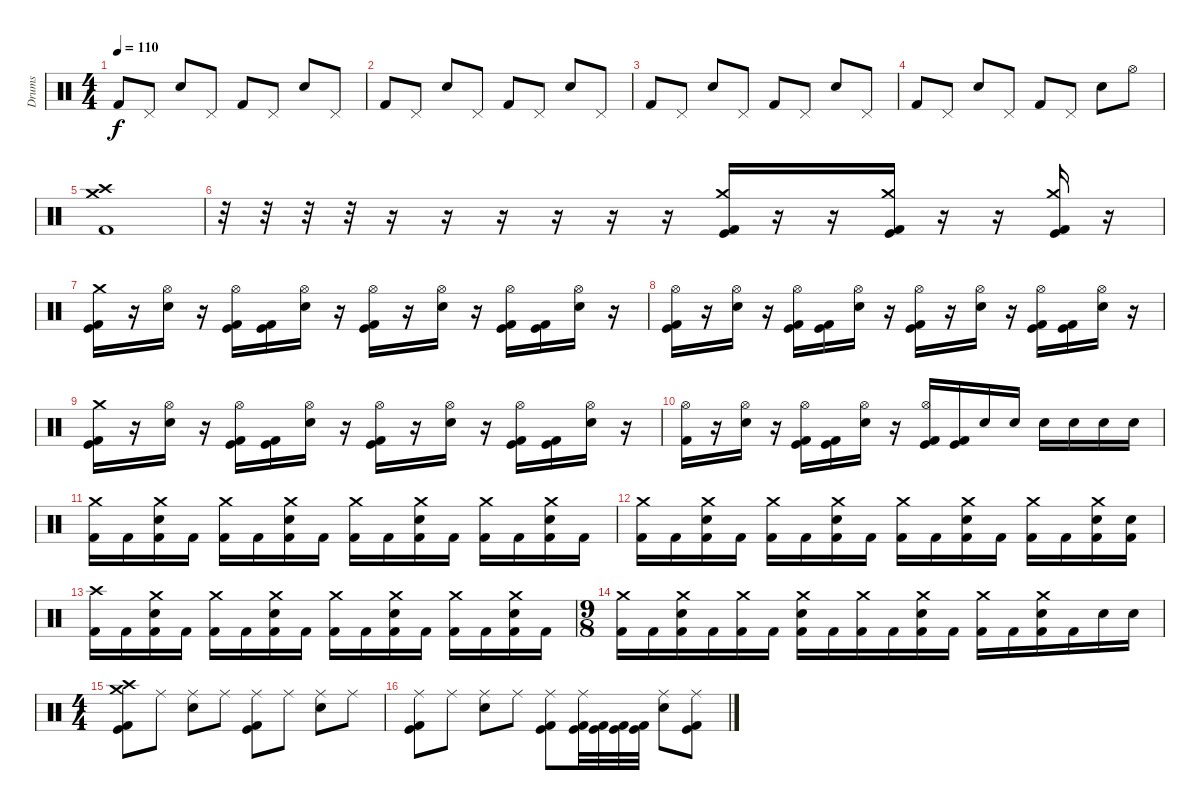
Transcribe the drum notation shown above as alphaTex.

\track ("Drums" "Drums") {instrument percussion}
\staff {score}
\articulation defaults
\ts (4 4)
\tempo 110
\clef neutral
\ks c "Kick (hit) 2".8{dy f} "Pedal Hi-Hat (hit)".8 "Snare (hit) 2".8 "Pedal Hi-Hat (hit)".8 "Kick (hit) 2".8 "Pedal Hi-Hat (hit)".8 "Snare (hit) 2".8 "Pedal Hi-Hat (hit)".8
|
"Kick (hit) 2".8 "Pedal Hi-Hat (hit)".8 "Snare (hit) 2".8 "Pedal Hi-Hat (hit)".8 "Kick (hit) 2".8 "Pedal Hi-Hat (hit)".8 "Snare (hit) 2".8 "Pedal Hi-Hat (hit)".8 |
"Kick (hit) 2".8 "Pedal Hi-Hat (hit)".8 "Snare (hit) 2".8 "Pedal Hi-Hat (hit)".8 "Kick (hit) 2".8 "Pedal Hi-Hat (hit)".8 "Snare (hit) 2".8 "Pedal Hi-Hat (hit)".8 |
"Kick (hit) 2".8 "Pedal Hi-Hat (hit)".8 "Snare (hit) 2".8 "Pedal Hi-Hat (hit)".8 "Kick (hit) 2".8 "Pedal Hi-Hat (hit)".8 "Snare (hit) 2".8 "Hi-Hat (open)".8 |
("Crash medium (hit)" "Crash high (hit)" "Kick (hit) 2").1 |
r.32 r.32 r.32 r.32 r.16 r.16 r.16 r.16 r.16 r.16 ("Crash medium (hit)" "Kick (hit)" "Kick (hit) 2").16 r.16 r.16 ("Crash medium (hit)" "Kick (hit)" "Kick (hit) 2").16 r.16 r.16 ("Crash medium (hit)" "Kick (hit)" "Kick (hit) 2").16 r.16 |
("Crash medium (hit)" "Kick (hit)" "Kick (hit) 2").16 r.16 ("Hi-Hat (open)" "Electric Snare (hit)").16 r.16 ("Hi-Hat (open)" "Kick (hit)" "Kick (hit) 2").16 ("Kick (hit)" "Kick (hit) 2").16 ("Hi-Hat (open)" "Electric Snare (hit)").16 r.16 ("Hi-Hat (open)" "Kick (hit)" "Kick (hit) 2").16 r.16 ("Hi-Hat (open)" "Electric Snare (hit)").16 r.16 ("Hi-Hat (open)" "Kick (hit)" "Kick (hit) 2").16 ("Kick (hit)" "Kick (hit) 2").16 ("Hi-Hat (open)" "Electric Snare (hit)").16 r.16 |
("Hi-Hat (open)" "Kick (hit)" "Kick (hit) 2").16 r.16 ("Hi-Hat (open)" "Electric Snare (hit)").16 r.16 ("Hi-Hat (open)" "Kick (hit)" "Kick (hit) 2").16 ("Kick (hit)" "Kick (hit) 2").16 ("Hi-Hat (open)" "Electric Snare (hit)").16 r.16 ("Hi-Hat (open)" "Kick (hit)" "Kick (hit) 2").16 r.16 ("Hi-Hat (open)" "Electric Snare (hit)").16 r.16 ("Hi-Hat (open)" "Kick (hit)" "Kick (hit) 2").16 ("Kick (hit)" "Kick (hit) 2").16 ("Hi-Hat (open)" "Electric Snare (hit)").16 r.16 |
("Crash medium (hit)" "Kick (hit)" "Kick (hit) 2").16 r.16 ("Hi-Hat (open)" "Electric Snare (hit)").16 r.16 ("Hi-Hat (open)" "Kick (hit)" "Kick (hit) 2").16 ("Kick (hit)" "Kick (hit) 2").16 ("Hi-Hat (open)" "Electric Snare (hit)").16 r.16 ("Hi-Hat (open)" "Kick (hit)" "Kick (hit) 2").16 r.16 ("Hi-Hat (open)" "Electric Snare (hit)").16 r.16 ("Hi-Hat (open)" "Kick (hit)" "Kick (hit) 2").16 ("Kick (hit)" "Kick (hit) 2").16 ("Hi-Hat (open)" "Electric Snare (hit)").16 r.16 |
("Hi-Hat (open)" "Kick (hit) 2").16 r.16 ("Hi-Hat (open)" "Electric Snare (hit)").16 r.16 ("Hi-Hat (open)" "Kick (hit)" "Kick (hit) 2").16 ("Kick (hit)" "Kick (hit) 2").16 ("Hi-Hat (open)" "Electric Snare (hit)").16 r.16 ("Hi-Hat (open)" "Kick (hit)" "Kick (hit) 2").16 ("Kick (hit)" "Kick (hit) 2").16 "Electric Snare (hit)".16 "Electric Snare (hit)".16 "Electric Snare (hit)".16 "Electric Snare (hit)".16 "Electric Snare (hit)".16 "Electric Snare (hit)".16 |
("Crash medium (hit)" "Kick (hit) 2").16 "Kick (hit) 2".16 ("Crash medium (hit)" "Electric Snare (hit)" "Kick (hit) 2").16 "Kick (hit) 2".16 ("Crash medium (hit)" "Kick (hit) 2").16 "Kick (hit) 2".16 ("Crash medium (hit)" "Electric Snare (hit)" "Kick (hit) 2").16 "Kick (hit) 2".16 ("Crash medium (hit)" "Kick (hit) 2").16 "Kick (hit) 2".16 ("Crash medium (hit)" "Electric Snare (hit)" "Kick (hit) 2").16 "Kick (hit) 2".16 ("Crash medium (hit)" "Kick (hit) 2").16 "Kick (hit) 2".16 ("Crash medium (hit)" "Electric Snare (hit)" "Kick (hit) 2").16 "Kick (hit) 2".16 |
("Crash medium (hit)" "Kick (hit) 2").16 "Kick (hit) 2".16 ("Crash medium (hit)" "Electric Snare (hit)" "Kick (hit) 2").16 "Kick (hit) 2".16 ("Crash medium (hit)" "Kick (hit) 2").16 "Kick (hit) 2".16 ("Crash medium (hit)" "Electric Snare (hit)" "Kick (hit) 2").16 "Kick (hit) 2".16 ("Crash medium (hit)" "Kick (hit) 2").16 "Kick (hit) 2".16 ("Crash medium (hit)" "Electric Snare (hit)" "Kick (hit) 2").16 "Kick (hit) 2".16 ("Crash medium (hit)" "Kick (hit) 2").16 "Kick (hit) 2".16 ("Crash medium (hit)" "Electric Snare (hit)" "Kick (hit) 2").16 ("Electric Snare (hit)" "Kick (hit) 2").16 |
("Crash high (hit)" "Kick (hit) 2").16 "Kick (hit) 2".16 ("Crash medium (hit)" "Electric Snare (hit)" "Kick (hit) 2").16 "Kick (hit) 2".16 ("Crash medium (hit)" "Kick (hit) 2").16 "Kick (hit) 2".16 ("Crash medium (hit)" "Electric Snare (hit)" "Kick (hit) 2").16 "Kick (hit) 2".16 ("Crash medium (hit)" "Kick (hit) 2").16 "Kick (hit) 2".16 ("Crash medium (hit)" "Electric Snare (hit)" "Kick (hit) 2").16 "Kick (hit) 2".16 ("Crash medium (hit)" "Kick (hit) 2").16 "Kick (hit) 2".16 ("Crash medium (hit)" "Electric Snare (hit)" "Kick (hit) 2").16 "Kick (hit) 2".16 |
\ts (9 8)
("Crash medium (hit)" "Kick (hit) 2").16 "Kick (hit) 2".16 ("Crash medium (hit)" "Electric Snare (hit)" "Kick (hit) 2").16 "Kick (hit) 2".16 ("Crash medium (hit)" "Kick (hit) 2").16 "Kick (hit) 2".16 ("Crash medium (hit)" "Electric Snare (hit)" "Kick (hit) 2").16 "Kick (hit) 2".16 ("Crash medium (hit)" "Kick (hit) 2").16 "Kick (hit) 2".16 ("Crash medium (hit)" "Electric Snare (hit)" "Kick (hit) 2").16 "Kick (hit) 2".16 ("Crash medium (hit)" "Kick (hit) 2").16 "Kick (hit) 2".16 ("Crash medium (hit)" "Electric Snare (hit)" "Kick (hit) 2").16 "Kick (hit) 2".16 "Electric Snare (hit)".16 "Electric Snare (hit)".16 |
\ts (4 4)
("Crash medium (hit)" "Crash high (hit)" "Kick (hit)" "Kick (hit) 2").8 "Ride (middle)".8 ("Ride (middle)" "Electric Snare (hit)").8 "Ride (middle)".8 ("Ride (middle)" "Kick (hit)" "Kick (hit) 2").8 "Ride (middle)".8 ("Ride (middle)" "Electric Snare (hit)").8 "Ride (middle)".8 |
("Ride (middle)" "Kick (hit)" "Kick (hit) 2").8 "Ride (middle)".8 ("Ride (middle)" "Electric Snare (hit)").8 "Ride (middle)".8 ("Ride (middle)" "Kick (hit)" "Kick (hit) 2").8 ("Ride (middle)" "Kick (hit)" "Kick (hit) 2").32 ("Kick (hit)" "Kick (hit) 2").32 ("Kick (hit)" "Kick (hit) 2").32 ("Kick (hit)" "Kick (hit) 2").32 ("Ride (middle)" "Electric Snare (hit)").8 ("Ride (middle)" "Kick (hit)" "Kick (hit) 2").8
